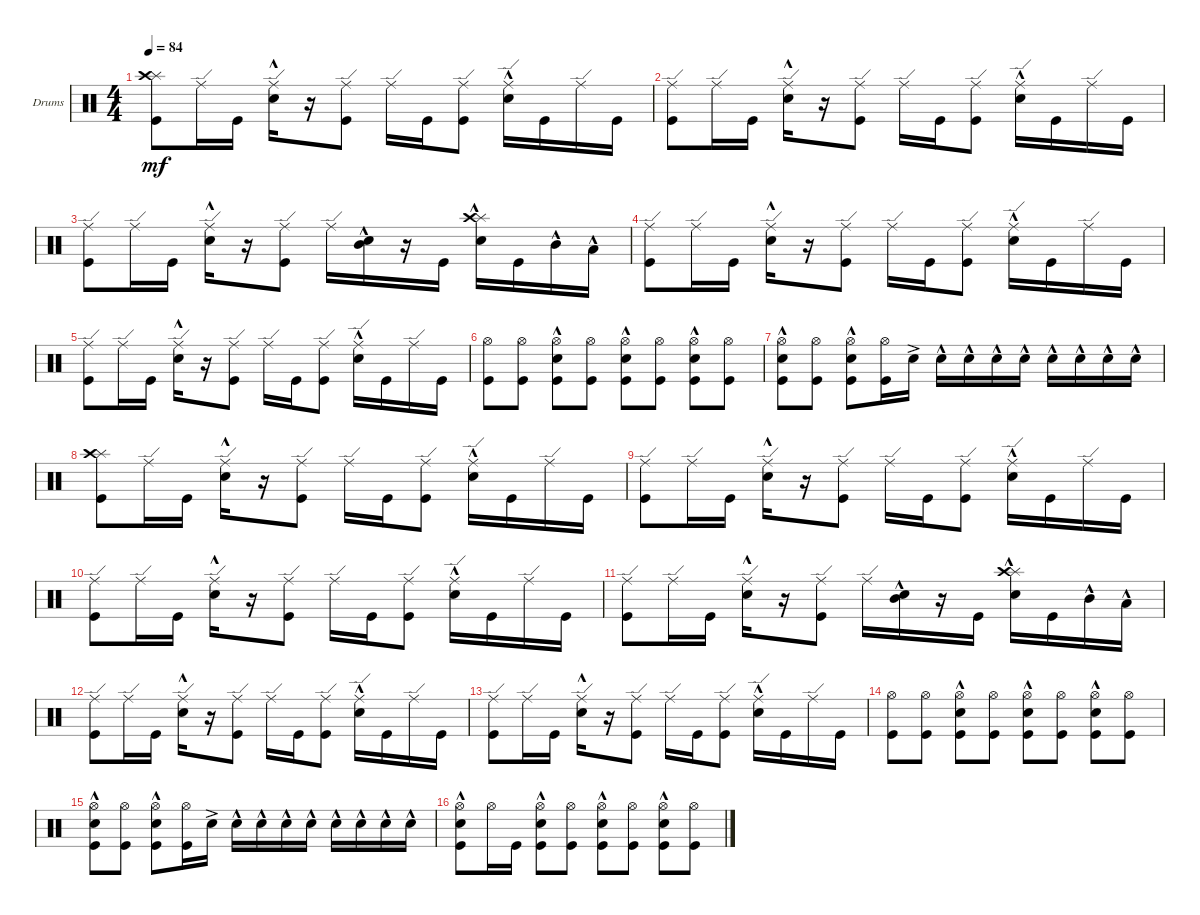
\defaultSystemsLayout 4
\bracketExtendMode groupsimilarinstruments
\firstSystemTrackNameOrientation horizontal
\otherSystemsTrackNameOrientation horizontal
\track ("Drumkit" "Drums") {instrument percussion}
\staff {score}
\articulation defaults
\ts (4 4)
\tempo 84
\clef neutral
\ks c
("Kick (hit)" "Splash (hit)" "Crash high (hit)").8{dy mf} "Ride (edge)".16 "Kick (hit)".16 ("Ride (edge)" "Snare (hit) 2"{hac}).16 r.16 ("Ride (edge)" "Kick (hit)").8 "Ride (edge)".16 "Kick (hit)".16 ("Ride (edge)" "Kick (hit)").8 ("Snare (hit) 2"{hac} "Ride (edge)").16 "Kick (hit)".16 "Ride (edge)".16 "Kick (hit)".16 |
("Kick (hit)" "Ride (edge)").8 "Ride (edge)".16 "Kick (hit)".16 ("Ride (edge)" "Snare (hit) 2"{hac}).16 r.16 ("Kick (hit)" "Ride (edge)").8 "Ride (edge)".16 "Kick (hit)".16 ("Ride (edge)" "Kick (hit)").8 ("Snare (hit) 2"{hac} "Ride (edge)").16 "Kick (hit)".16 "Ride (edge)".16 "Kick (hit)".16 |
("Kick (hit)" "Ride (edge)").8 "Ride (edge)".16 "Kick (hit)".16 ("Ride (edge)" "Snare (hit) 2"{hac}).16 r.16 ("Ride (edge)" "Kick (hit)").8 "Ride (edge)".16 ("Mid Tom (hit)"{hac} "Snare (hit) 2"{hac}).16 r.16 "Kick (hit)".16 ("Snare (hit) 2"{hac} "Splash (hit)" "Crash high (hit)").16 "Kick (hit)".16 "Mid Tom (hit)"{hac}.16 "Low Tom (hit)"{hac}.16 |
("Kick (hit)" "Ride (edge)").8 "Ride (edge)".16 "Kick (hit)".16 ("Ride (edge)" "Snare (hit) 2"{hac}).16 r.16 ("Kick (hit)" "Ride (edge)").8 "Ride (edge)".16 "Kick (hit)".16 ("Ride (edge)" "Kick (hit)").8 ("Snare (hit) 2"{hac} "Ride (edge)").16 "Kick (hit)".16 "Ride (edge)".16 "Kick (hit)".16 |
("Kick (hit)" "Ride (edge)").8 "Ride (edge)".16 "Kick (hit)".16 ("Ride (edge)" "Snare (hit) 2"{hac}).16 r.16 ("Ride (edge)" "Kick (hit)").8 "Ride (edge)".16 "Kick (hit)".16 ("Ride (edge)" "Kick (hit)").8 ("Snare (hit) 2"{hac} "Ride (edge)").16 "Kick (hit)".16 "Ride (edge)".16 "Kick (hit)".16 |
("Kick (hit)" "Hi-Hat (open)").8 ("Kick (hit)" "Hi-Hat (open)").8 ("Snare (hit) 2"{hac} "Kick (hit)" "Hi-Hat (open)").8 ("Kick (hit)" "Hi-Hat (open)").8 ("Kick (hit)" "Snare (hit) 2"{hac} "Hi-Hat (open)").8 ("Kick (hit)" "Hi-Hat (open)").8 ("Snare (hit) 2"{hac} "Kick (hit)" "Hi-Hat (open)").8 ("Kick (hit)" "Hi-Hat (open)").8 |
("Kick (hit)" "Snare (hit) 2"{hac} "Hi-Hat (open)").8 ("Kick (hit)" "Hi-Hat (open)").8 ("Snare (hit) 2"{hac} "Kick (hit)" "Hi-Hat (open)").8 ("Kick (hit)" "Hi-Hat (open)").16 "Snare (hit) 2"{ac}.16 "Snare (hit) 2"{hac}.16 "Snare (hit) 2"{hac}.16 "Snare (hit) 2"{hac}.16 "Snare (hit) 2"{hac}.16 "Snare (hit) 2"{hac}.16 "Snare (hit) 2"{hac}.16 "Snare (hit) 2"{hac}.16 "Snare (hit) 2"{hac}.16 |
("Kick (hit)" "Splash (hit)" "Crash high (hit)").8 "Ride (edge)".16 "Kick (hit)".16 ("Ride (edge)" "Snare (hit) 2"{hac}).16 r.16 ("Kick (hit)" "Ride (edge)").8 "Ride (edge)".16 "Kick (hit)".16 ("Ride (edge)" "Kick (hit)").8 ("Snare (hit) 2"{hac} "Ride (edge)").16 "Kick (hit)".16 "Ride (edge)".16 "Kick (hit)".16 |
("Kick (hit)" "Ride (edge)").8 "Ride (edge)".16 "Kick (hit)".16 ("Ride (edge)" "Snare (hit) 2"{hac}).16 r.16 ("Ride (edge)" "Kick (hit)").8 "Ride (edge)".16 "Kick (hit)".16 ("Ride (edge)" "Kick (hit)").8 ("Snare (hit) 2"{hac} "Ride (edge)").16 "Kick (hit)".16 "Ride (edge)".16 "Kick (hit)".16 |
("Kick (hit)" "Ride (edge)").8 "Ride (edge)".16 "Kick (hit)".16 ("Ride (edge)" "Snare (hit) 2"{hac}).16 r.16 ("Kick (hit)" "Ride (edge)").8 "Ride (edge)".16 "Kick (hit)".16 ("Ride (edge)" "Kick (hit)").8 ("Snare (hit) 2"{hac} "Ride (edge)").16 "Kick (hit)".16 "Ride (edge)".16 "Kick (hit)".16 |
("Kick (hit)" "Ride (edge)").8 "Ride (edge)".16 "Kick (hit)".16 ("Ride (edge)" "Snare (hit) 2"{hac}).16 r.16 ("Ride (edge)" "Kick (hit)").8 "Ride (edge)".16 ("Mid Tom (hit)"{hac} "Snare (hit) 2"{hac}).16 r.16 "Kick (hit)".16 ("Snare (hit) 2"{hac} "Splash (hit)" "Crash high (hit)").16 "Kick (hit)".16 "Mid Tom (hit)"{hac}.16 "Low Tom (hit)"{hac}.16 |
("Kick (hit)" "Ride (edge)").8 "Ride (edge)".16 "Kick (hit)".16 ("Ride (edge)" "Snare (hit) 2"{hac}).16 r.16 ("Kick (hit)" "Ride (edge)").8 "Ride (edge)".16 "Kick (hit)".16 ("Ride (edge)" "Kick (hit)").8 ("Snare (hit) 2"{hac} "Ride (edge)").16 "Kick (hit)".16 "Ride (edge)".16 "Kick (hit)".16 |
("Kick (hit)" "Ride (edge)").8 "Ride (edge)".16 "Kick (hit)".16 ("Ride (edge)" "Snare (hit) 2"{hac}).16 r.16 ("Ride (edge)" "Kick (hit)").8 "Ride (edge)".16 "Kick (hit)".16 ("Ride (edge)" "Kick (hit)").8 ("Snare (hit) 2"{hac} "Ride (edge)").16 "Kick (hit)".16 "Ride (edge)".16 "Kick (hit)".16 |
("Kick (hit)" "Hi-Hat (open)").8 ("Kick (hit)" "Hi-Hat (open)").8 ("Snare (hit) 2"{hac} "Kick (hit)" "Hi-Hat (open)").8 ("Kick (hit)" "Hi-Hat (open)").8 ("Kick (hit)" "Snare (hit) 2"{hac} "Hi-Hat (open)").8 ("Kick (hit)" "Hi-Hat (open)").8 ("Snare (hit) 2"{hac} "Kick (hit)" "Hi-Hat (open)").8 ("Kick (hit)" "Hi-Hat (open)").8 |
("Kick (hit)" "Snare (hit) 2"{hac} "Hi-Hat (open)").8 ("Kick (hit)" "Hi-Hat (open)").8 ("Snare (hit) 2"{hac} "Kick (hit)" "Hi-Hat (open)").8 ("Kick (hit)" "Hi-Hat (open)").16 "Snare (hit) 2"{ac}.16 "Snare (hit) 2"{hac}.16 "Snare (hit) 2"{hac}.16 "Snare (hit) 2"{hac}.16 "Snare (hit) 2"{hac}.16 "Snare (hit) 2"{hac}.16 "Snare (hit) 2"{hac}.16 "Snare (hit) 2"{hac}.16 "Snare (hit) 2"{hac}.16 |
("Kick (hit)" "Hi-Hat (open)" "Snare (hit) 2"{hac}).8 "Hi-Hat (open)".16 "Kick (hit)".16 ("Snare (hit) 2"{hac} "Kick (hit)" "Hi-Hat (open)").8 ("Kick (hit)" "Hi-Hat (open)").8 ("Kick (hit)" "Snare (hit) 2"{hac} "Hi-Hat (open)").8 ("Kick (hit)" "Hi-Hat (open)").8 ("Snare (hit) 2"{hac} "Kick (hit)" "Hi-Hat (open)").8 ("Kick (hit)" "Hi-Hat (open)").8
